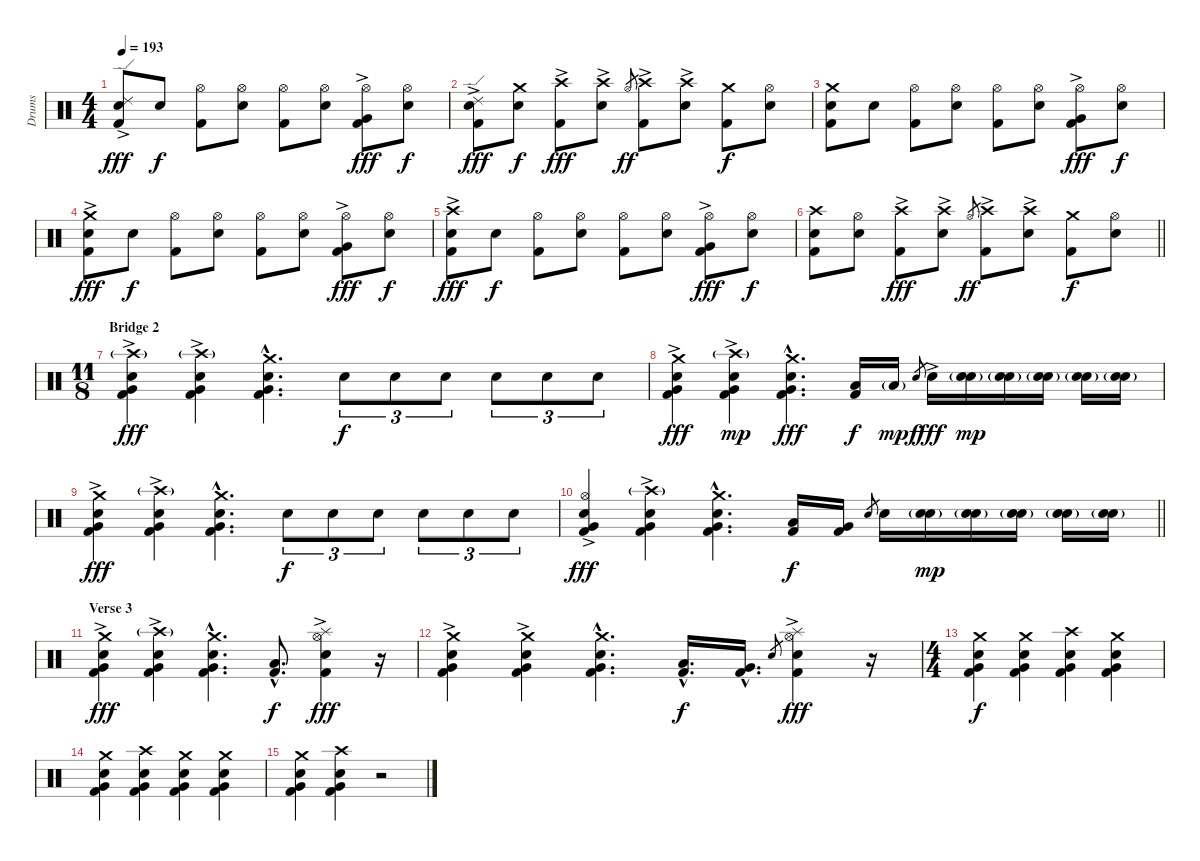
\track ("Drums" "Drums") {instrument percussion}
\staff {score}
\articulation defaults
\ts (4 4)
\tempo 193
\clef neutral
\ks c
("Ride (edge) 2"{ac} "Snare (hit) 2" "Kick (hit) 2").8{dy fff} "Electric Snare (hit)".8{dy f} ("Hi-Hat (open)" "Kick (hit) 2").8 ("Hi-Hat (open)" "Electric Snare (hit)").8 ("Hi-Hat (open)" "Kick (hit) 2").8 ("Hi-Hat (open)" "Electric Snare (hit)").8 ("Hi-Hat (open)" "Very Low Tom (hit)"{ac} "Kick (hit) 2"{ac}).8{dy fff} ("Hi-Hat (open)" "Electric Snare (hit)").8{dy f} |
("Ride (edge) 2"{ac} "Snare (hit) 2" "Kick (hit) 2").8{dy fff} ("Crash medium (hit)" "Electric Snare (hit)").8{dy f} ("Crash high (hit)"{ac} "Kick (hit) 2").8{dy fff} ("Crash high (hit)"{ac} "Electric Snare (hit)").8 "Hi-Hat (open)".8{gr dy ff} ("Crash high (hit)"{ac} "Kick (hit) 2").8 ("Crash high (hit)"{ac} "Electric Snare (hit)").8 ("Crash medium (hit)" "Kick (hit) 2").8{dy f} ("Hi-Hat (open)" "Electric Snare (hit)").8 |
("Crash medium (hit)" "Snare (hit) 2" "Kick (hit) 2").8 "Electric Snare (hit)".8 ("Hi-Hat (open)" "Kick (hit) 2").8 ("Hi-Hat (open)" "Electric Snare (hit)").8 ("Hi-Hat (open)" "Kick (hit) 2").8 ("Hi-Hat (open)" "Electric Snare (hit)").8 ("Hi-Hat (open)" "Very Low Tom (hit)"{ac} "Kick (hit) 2"{ac}).8{dy fff} ("Hi-Hat (open)" "Electric Snare (hit)").8{dy f} |
("Crash medium (hit)"{ac} "Snare (hit) 2" "Kick (hit) 2").8{dy fff} "Electric Snare (hit)".8{dy f} ("Hi-Hat (open)" "Kick (hit) 2").8 ("Hi-Hat (open)" "Electric Snare (hit)").8 ("Hi-Hat (open)" "Kick (hit) 2").8 ("Hi-Hat (open)" "Electric Snare (hit)").8 ("Hi-Hat (open)" "Very Low Tom (hit)"{ac} "Kick (hit) 2"{ac}).8{dy fff} ("Hi-Hat (open)" "Electric Snare (hit)").8{dy f} |
("Crash high (hit)"{ac} "Snare (hit) 2" "Kick (hit) 2").8{dy fff} "Electric Snare (hit)".8{dy f} ("Hi-Hat (open)" "Kick (hit) 2").8 ("Hi-Hat (open)" "Electric Snare (hit)").8 ("Hi-Hat (open)" "Kick (hit) 2").8 ("Hi-Hat (open)" "Electric Snare (hit)").8 ("Hi-Hat (open)" "Very Low Tom (hit)"{ac} "Kick (hit) 2"{ac}).8{dy fff} ("Hi-Hat (open)" "Electric Snare (hit)").8{dy f} |
\barLineRight lightlight
("Crash high (hit)" "Snare (hit) 2" "Kick (hit) 2").8 ("Hi-Hat (open)" "Electric Snare (hit)").8 ("Crash high (hit)"{ac} "Kick (hit) 2").8{dy fff} ("Crash high (hit)"{ac} "Electric Snare (hit)").8 "Hi-Hat (open)".8{gr dy ff} ("Crash high (hit)"{ac} "Kick (hit) 2").8 ("Crash high (hit)"{ac} "Electric Snare (hit)").8 ("Crash medium (hit)" "Kick (hit) 2").8{dy f} ("Hi-Hat (open)" "Electric Snare (hit)").8 |
\ts (11 8)
\section ("" "Bridge 2")
("Crash high (hit)"{g} "Electric Snare (hit)" "Very Low Tom (hit)"{ac} "Kick (hit) 2"{ac}).4{dy fff} ("Crash high (hit)"{g} "Electric Snare (hit)" "Very Low Tom (hit)"{ac} "Kick (hit) 2"{ac}).4 ("Crash medium (hit)"{hac} "Electric Snare (hit)"{hac} "Very Low Tom (hit)"{hac} "Kick (hit) 2"{hac}).4{d} "Electric Snare (hit)".8{tu (3 2) dy f} "Electric Snare (hit)".8{tu (3 2)} "Electric Snare (hit)".8{tu (3 2)} "Electric Snare (hit)".8{tu (3 2)} "Electric Snare (hit)".8{tu (3 2)} "Electric Snare (hit)".8{tu (3 2)} |
("Crash medium (hit)"{ac} "Electric Snare (hit)" "Very Low Tom (hit)"{ac} "Kick (hit) 2"{ac}).4{dy fff} ("Crash high (hit)"{g} "Electric Snare (hit)" "Very Low Tom (hit)"{ac} "Kick (hit) 2"{ac}).4{dy mp} ("Crash medium (hit)"{hac} "Electric Snare (hit)"{hac} "Very Low Tom (hit)"{hac} "Kick (hit) 2"{hac}).4{d dy fff} ("Low Tom (hit)" "Kick (hit) 2").16{dy f} "Low Tom (hit)"{g}.16{dy mp} "Electric Snare (hit)".8{gr dy f} "Electric Snare (hit)"{ac}.16{dy fff} ("Snare (hit) 2"{g} "Electric Snare (hit)").16{dy mp} ("Snare (hit) 2"{g} "Electric Snare (hit)").16 ("Snare (hit) 2"{g} "Electric Snare (hit)").16 ("Snare (hit) 2"{g} "Electric Snare (hit)").16 ("Snare (hit) 2"{g} "Electric Snare (hit)").16 |
("Crash medium (hit)" "Electric Snare (hit)" "Very Low Tom (hit)"{ac} "Kick (hit) 2"{ac}).4{dy fff} ("Crash high (hit)"{g} "Electric Snare (hit)" "Very Low Tom (hit)"{ac} "Kick (hit) 2"{ac}).4 ("Crash medium (hit)"{hac} "Electric Snare (hit)"{hac} "Very Low Tom (hit)"{hac} "Kick (hit) 2"{hac}).4{d} "Electric Snare (hit)".8{tu (3 2) dy f} "Electric Snare (hit)".8{tu (3 2)} "Electric Snare (hit)".8{tu (3 2)} "Electric Snare (hit)".8{tu (3 2)} "Electric Snare (hit)".8{tu (3 2)} "Electric Snare (hit)".8{tu (3 2)} |
\barLineRight lightlight
("Hi-Hat (open)" "Electric Snare (hit)" "Very Low Tom (hit)"{ac} "Kick (hit) 2"{ac}).4{dy fff} ("Crash high (hit)"{g} "Electric Snare (hit)" "Very Low Tom (hit)"{ac} "Kick (hit) 2"{ac}).4 ("Crash medium (hit)"{hac} "Electric Snare (hit)"{hac} "Very Low Tom (hit)"{hac} "Kick (hit) 2"{hac}).4{d} ("Low Tom (hit)" "Kick (hit) 2").16{dy f} ("Very Low Tom (hit)" "Kick (hit) 2").16 "Electric Snare (hit)".8{gr} "Electric Snare (hit)".16 ("Snare (hit) 2"{g} "Electric Snare (hit)").16{dy mp} ("Snare (hit) 2"{g} "Electric Snare (hit)").16 ("Snare (hit) 2"{g} "Electric Snare (hit)").16 ("Snare (hit) 2"{g} "Electric Snare (hit)").16 ("Snare (hit) 2"{g} "Electric Snare (hit)").16 |
\section ("" "Verse 3")
("Crash medium (hit)" "Electric Snare (hit)" "Very Low Tom (hit)"{ac} "Kick (hit) 2"{ac}).4{dy fff} ("Crash high (hit)"{g} "Electric Snare (hit)" "Very Low Tom (hit)"{ac} "Kick (hit) 2"{ac}).4 ("Crash medium (hit)"{hac} "Electric Snare (hit)"{hac} "Very Low Tom (hit)"{hac} "Kick (hit) 2"{hac}).4{d} ("Low Floor Tom (hit)"{hac} "Kick (hit) 2"{hac}).8{d dy f} ("Splash (hit)" "Hi-Hat (open)"{ac} "Electric Snare (hit)" "Kick (hit) 2").4{dy fff} r.16 |
("Crash medium (hit)" "Electric Snare (hit)" "Very Low Tom (hit)"{ac} "Kick (hit) 2"{ac}).4 ("Crash medium (hit)" "Electric Snare (hit)" "Very Low Tom (hit)"{ac} "Kick (hit) 2"{ac}).4 ("Crash medium (hit)"{hac} "Electric Snare (hit)"{hac} "Very Low Tom (hit)"{hac} "Kick (hit) 2"{hac}).4{d} ("Low Floor Tom (hit)"{hac} "Kick (hit) 2"{hac}).16{d dy f} ("Very Low Tom (hit)"{hac} "Kick (hit) 2"{hac}).16{d} "Electric Snare (hit)".8{gr} ("Splash (hit)"{ac} "Hi-Hat (open)" "Electric Snare (hit)" "Kick (hit) 2").4{dy fff} r.16 |
\ts (4 4)
("Crash medium (hit)" "Electric Snare (hit)" "Very Low Tom (hit)" "Kick (hit) 2").4{dy f} ("Crash medium (hit)" "Electric Snare (hit)" "Very Low Tom (hit)" "Kick (hit) 2").4 ("Crash high (hit)" "Electric Snare (hit)" "Very Low Tom (hit)" "Kick (hit) 2").4 ("Crash medium (hit)" "Electric Snare (hit)" "Very Low Tom (hit)" "Kick (hit) 2").4 |
("Crash medium (hit)" "Electric Snare (hit)" "Very Low Tom (hit)" "Kick (hit) 2").4 ("Crash high (hit)" "Electric Snare (hit)" "Very Low Tom (hit)" "Kick (hit) 2").4 ("Crash medium (hit)" "Electric Snare (hit)" "Very Low Tom (hit)" "Kick (hit) 2").4 ("Crash medium (hit)" "Electric Snare (hit)" "Very Low Tom (hit)" "Kick (hit) 2").4 |
("Crash medium (hit)" "Electric Snare (hit)" "Very Low Tom (hit)" "Kick (hit) 2").4 ("Crash high (hit)" "Electric Snare (hit)" "Very Low Tom (hit)" "Kick (hit) 2").4 r.2
